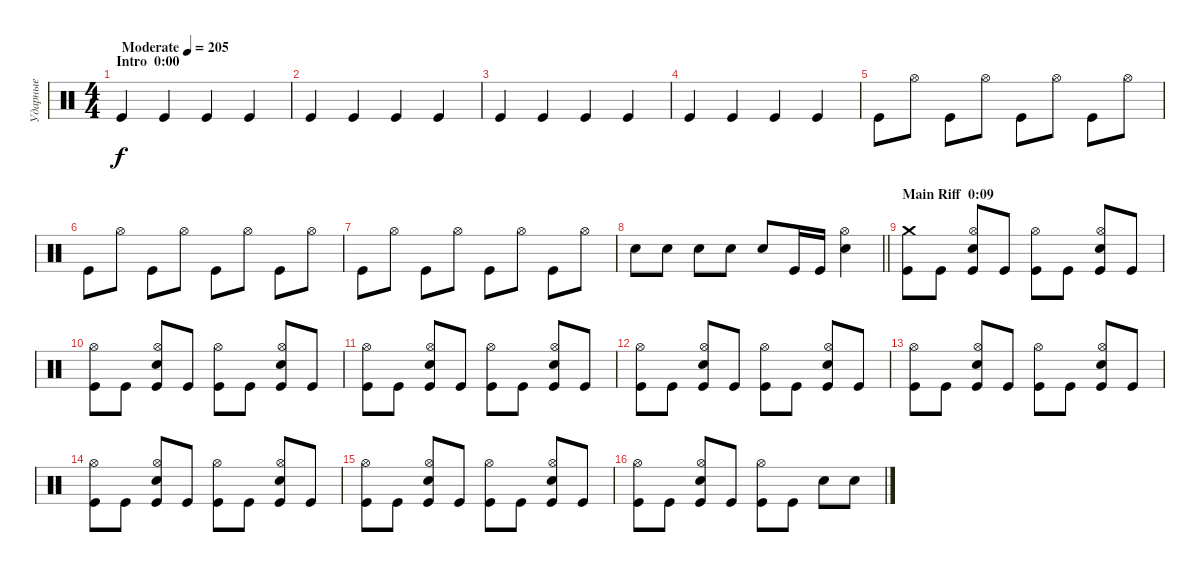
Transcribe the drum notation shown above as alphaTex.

\track ("Ударные" "Ударные") {instrument percussion}
\staff {score}
\articulation defaults
\ts (4 4)
\section ("" "Intro  0:00")
\tempo (205 "Moderate")
\clef neutral
\ks c "Kick (hit)".4{dy f} "Kick (hit)".4 "Kick (hit)".4 "Kick (hit)".4
|
"Kick (hit)".4 "Kick (hit)".4 "Kick (hit)".4 "Kick (hit)".4 |
"Kick (hit)".4 "Kick (hit)".4 "Kick (hit)".4 "Kick (hit)".4 |
"Kick (hit)".4 "Kick (hit)".4 "Kick (hit)".4 "Kick (hit)".4 |
"Kick (hit)".8 "Hi-Hat (open)".8 "Kick (hit)".8 "Hi-Hat (open)".8 "Kick (hit)".8 "Hi-Hat (open)".8 "Kick (hit)".8 "Hi-Hat (open)".8 |
"Kick (hit)".8 "Hi-Hat (open)".8 "Kick (hit)".8 "Hi-Hat (open)".8 "Kick (hit)".8 "Hi-Hat (open)".8 "Kick (hit)".8 "Hi-Hat (open)".8 |
"Kick (hit)".8 "Hi-Hat (open)".8 "Kick (hit)".8 "Hi-Hat (open)".8 "Kick (hit)".8 "Hi-Hat (open)".8 "Kick (hit)".8 "Hi-Hat (open)".8 |
\barLineRight lightlight "Snare (hit) 2".8 "Snare (hit) 2".8 "Snare (hit) 2".8 "Snare (hit) 2".8 "Snare (hit) 2".8 "Kick (hit)".16 "Kick (hit)".16
("Hi-Hat (open)" "Snare (hit) 2").4 |
\section ("" "Main Riff  0:09")
("Crash medium (hit)" "Kick (hit)").8 "Kick (hit)".8 ("Hi-Hat (open)" "Snare (hit) 2" "Kick (hit)").8 "Kick (hit)".8 ("Hi-Hat (open)" "Kick (hit)").8 "Kick (hit)".8 ("Hi-Hat (open)" "Snare (hit) 2" "Kick (hit)").8 "Kick (hit)".8 |
("Hi-Hat (open)" "Kick (hit)").8 "Kick (hit)".8 ("Hi-Hat (open)" "Snare (hit) 2" "Kick (hit)").8 "Kick (hit)".8 ("Hi-Hat (open)" "Kick (hit)").8 "Kick (hit)".8 ("Hi-Hat (open)" "Snare (hit) 2" "Kick (hit)").8 "Kick (hit)".8 |
("Hi-Hat (open)" "Kick (hit)").8 "Kick (hit)".8 ("Hi-Hat (open)" "Snare (hit) 2" "Kick (hit)").8 "Kick (hit)".8 ("Hi-Hat (open)" "Kick (hit)").8 "Kick (hit)".8 ("Hi-Hat (open)" "Snare (hit) 2" "Kick (hit)").8 "Kick (hit)".8 |
("Hi-Hat (open)" "Kick (hit)").8 "Kick (hit)".8 ("Hi-Hat (open)" "Snare (hit) 2" "Kick (hit)").8 "Kick (hit)".8 ("Hi-Hat (open)" "Kick (hit)").8 "Kick (hit)".8 ("Hi-Hat (open)" "Snare (hit) 2" "Kick (hit)").8 "Kick (hit)".8 |
("Hi-Hat (open)" "Kick (hit)").8 "Kick (hit)".8 ("Hi-Hat (open)" "Snare (hit) 2" "Kick (hit)").8 "Kick (hit)".8 ("Hi-Hat (open)" "Kick (hit)").8 "Kick (hit)".8 ("Hi-Hat (open)" "Snare (hit) 2" "Kick (hit)").8 "Kick (hit)".8 |
("Hi-Hat (open)" "Kick (hit)").8 "Kick (hit)".8 ("Hi-Hat (open)" "Snare (hit) 2" "Kick (hit)").8 "Kick (hit)".8 ("Hi-Hat (open)" "Kick (hit)").8 "Kick (hit)".8 ("Hi-Hat (open)" "Snare (hit) 2" "Kick (hit)").8 "Kick (hit)".8 |
("Hi-Hat (open)" "Kick (hit)").8 "Kick (hit)".8 ("Hi-Hat (open)" "Snare (hit) 2" "Kick (hit)").8 "Kick (hit)".8 ("Hi-Hat (open)" "Kick (hit)").8 "Kick (hit)".8 ("Hi-Hat (open)" "Snare (hit) 2" "Kick (hit)").8 "Kick (hit)".8 |
("Hi-Hat (open)" "Kick (hit)").8 "Kick (hit)".8 ("Hi-Hat (open)" "Snare (hit) 2" "Kick (hit)").8 "Kick (hit)".8 ("Hi-Hat (open)" "Kick (hit)").8 "Kick (hit)".8 "Snare (hit) 2".8 "Snare (hit) 2".8
